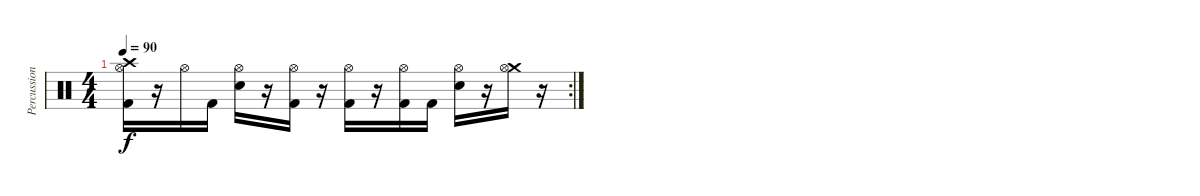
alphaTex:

\track ("Percussion" "Percussion") {instrument percussion}
\staff {score}
\articulation defaults
\rc 2
\ts (4 4)
\tempo 90
\clef neutral
\ks c
("Crash high (hit)" "Hi-Hat (open)" "Kick (hit) 2").16{dy f} r.16 "Hi-Hat (open)".16 "Kick (hit) 2".16 ("Hi-Hat (open)" "Electric Snare (hit)").16 r.16 ("Hi-Hat (open)" "Kick (hit) 2").16 r.16 ("Hi-Hat (open)" "Kick (hit) 2").16 r.16 ("Hi-Hat (open)" "Kick (hit) 2").16 "Kick (hit) 2".16 ("Hi-Hat (open)" "Electric Snare (hit)").16 r.16 ("Crash medium (hit)" "Hi-Hat (open)").16 r.16
